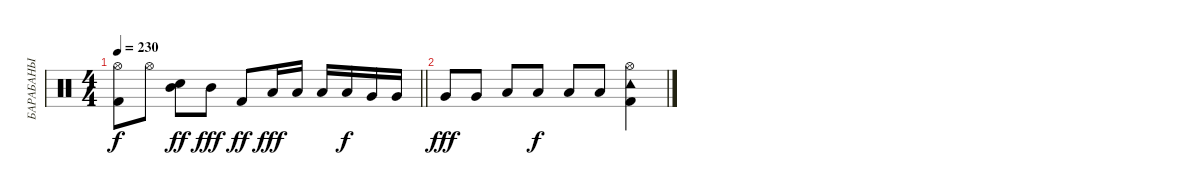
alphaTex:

\track ("БАРАБАНЫ" "БАРАБАНЫ") {instrument percussion}
\staff {score}
\articulation defaults
\ts (4 4)
\tempo 230
\clef neutral
\barLineRight lightlight
\ks c
("Hi-Hat (open)" "Kick (hit) 2").8{dy f} "Hi-Hat (open)".8 ("Mid Tom (hit)" "Electric Snare (hit)").8{dy ff} "Mid Tom (hit)".8{dy fff} "Kick (hit) 2".8{dy ff} "Low Tom (hit)".16{dy fff} "Low Tom (hit)".16 "Low Tom (hit)".16 "Low Tom (hit)".16{dy f} "Very Low Tom (hit)".16 "Very Low Tom (hit)".16 |
"Very Low Tom (hit)".8{dy fff} "Very Low Tom (hit)".8 "Low Tom (hit)".8 "Low Tom (hit)".8{dy f} "Low Tom (hit)".8 "Low Tom (hit)".8 ("Tambourine (hit)" "Hi-Hat (open)" "Kick (hit) 2").4
